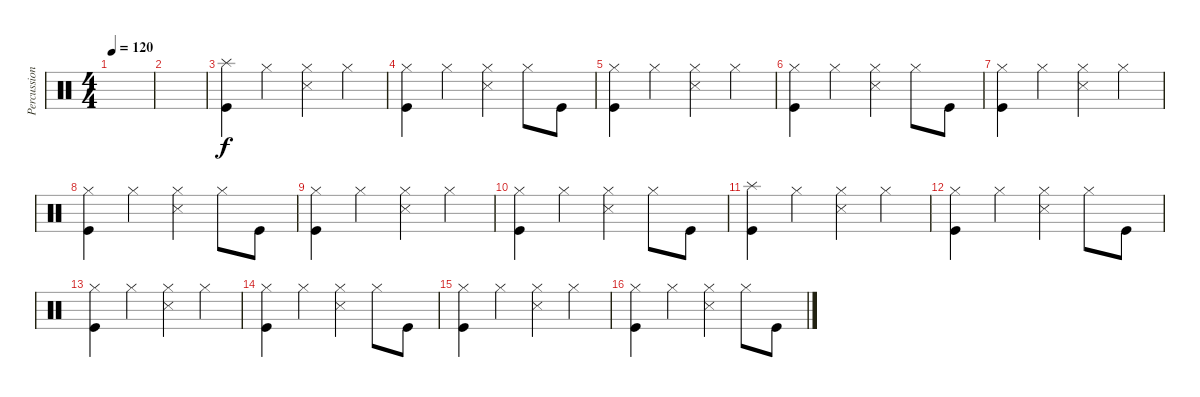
\track ("Percussion" "Percussion") {instrument percussion}
\staff {score}
\articulation defaults
\ts (4 4)
\tempo 120
\clef neutral
\ks c
|
|
("Splash (hit)" "Kick (hit)").4 "Hi-Hat (closed)".4 ("Hi-Hat (closed)" "Snare (side stick) 3").4 "Hi-Hat (closed)".4 |
("Hi-Hat (closed)" "Kick (hit)").4 "Hi-Hat (closed)".4 ("Hi-Hat (closed)" "Snare (side stick) 3").4 "Hi-Hat (closed)".8 "Kick (hit)".8 |
("Hi-Hat (closed)" "Kick (hit)").4 "Hi-Hat (closed)".4 ("Hi-Hat (closed)" "Snare (side stick) 3").4 "Hi-Hat (closed)".4 |
("Hi-Hat (closed)" "Kick (hit)").4 "Hi-Hat (closed)".4 ("Hi-Hat (closed)" "Snare (side stick) 3").4 "Hi-Hat (closed)".8 "Kick (hit)".8 |
("Hi-Hat (closed)" "Kick (hit)").4 "Hi-Hat (closed)".4 ("Hi-Hat (closed)" "Snare (side stick) 3").4 "Hi-Hat (closed)".4 |
("Hi-Hat (closed)" "Kick (hit)").4 "Hi-Hat (closed)".4 ("Hi-Hat (closed)" "Snare (side stick) 3").4 "Hi-Hat (closed)".8 "Kick (hit)".8 |
("Hi-Hat (closed)" "Kick (hit)").4 "Hi-Hat (closed)".4 ("Hi-Hat (closed)" "Snare (side stick) 3").4 "Hi-Hat (closed)".4 |
("Hi-Hat (closed)" "Kick (hit)").4 "Hi-Hat (closed)".4 ("Hi-Hat (closed)" "Snare (side stick) 3").4 "Hi-Hat (closed)".8 "Kick (hit)".8 |
("Splash (hit)" "Kick (hit)").4 "Hi-Hat (closed)".4 ("Hi-Hat (closed)" "Snare (side stick) 3").4 "Hi-Hat (closed)".4 |
("Hi-Hat (closed)" "Kick (hit)").4 "Hi-Hat (closed)".4 ("Hi-Hat (closed)" "Snare (side stick) 3").4 "Hi-Hat (closed)".8 "Kick (hit)".8 |
("Hi-Hat (closed)" "Kick (hit)").4 "Hi-Hat (closed)".4 ("Hi-Hat (closed)" "Snare (side stick) 3").4 "Hi-Hat (closed)".4 |
("Hi-Hat (closed)" "Kick (hit)").4 "Hi-Hat (closed)".4 ("Hi-Hat (closed)" "Snare (side stick) 3").4 "Hi-Hat (closed)".8 "Kick (hit)".8 |
("Hi-Hat (closed)" "Kick (hit)").4 "Hi-Hat (closed)".4 ("Hi-Hat (closed)" "Snare (side stick) 3").4 "Hi-Hat (closed)".4 |
("Hi-Hat (closed)" "Kick (hit)").4 "Hi-Hat (closed)".4 ("Hi-Hat (closed)" "Snare (side stick) 3").4 "Hi-Hat (closed)".8 "Kick (hit)".8
